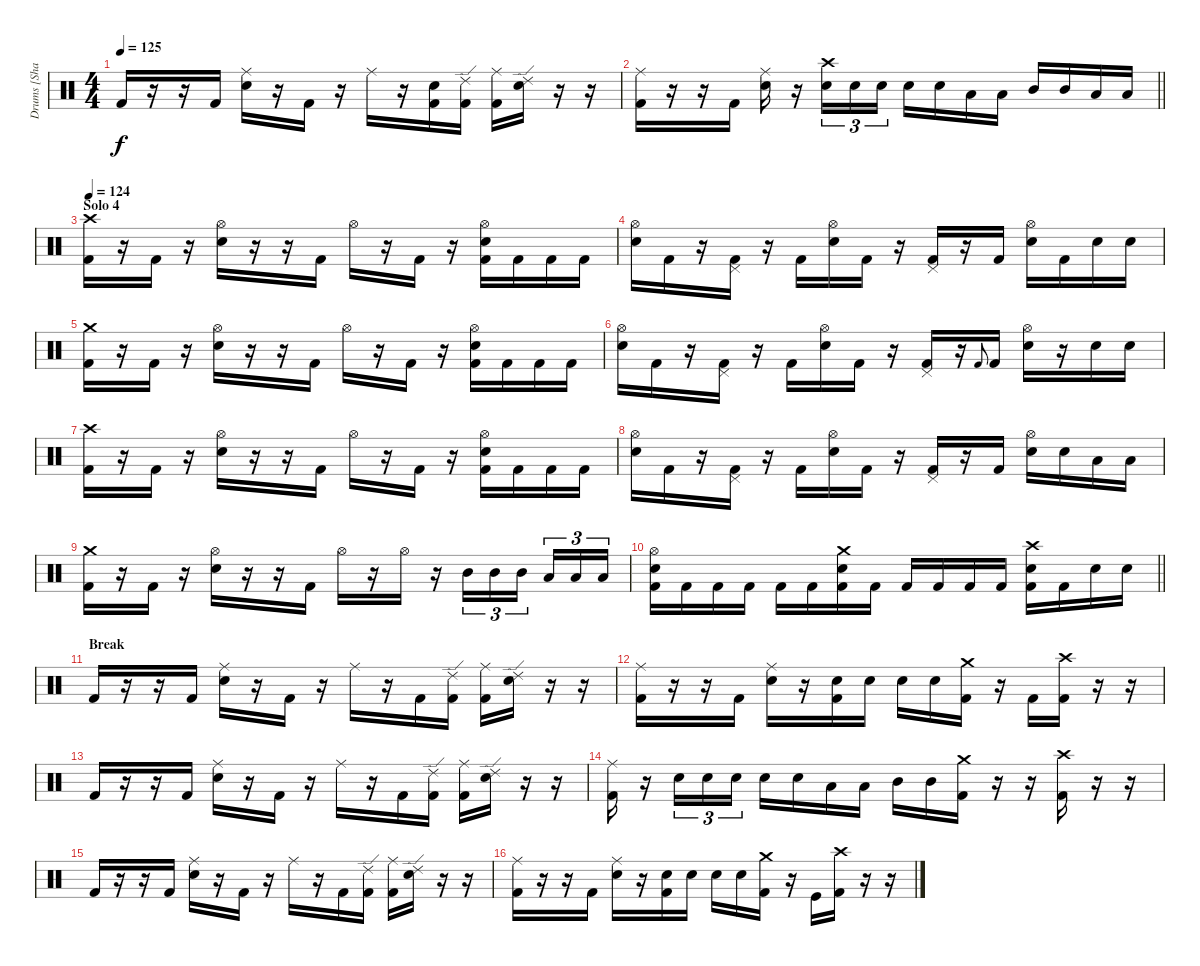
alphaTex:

\track ("Drums [Shawn Drover]" "Drums [Sha") {instrument percussion}
\staff {score}
\articulation defaults
\ts (4 4)
\tempo 125
\clef neutral
\ks c "Kick (hit) 2".16{dy f}
r.16 r.16 "Kick (hit) 2".16 ("Ride (middle)" "Electric Snare (hit)").16 r.16 "Kick (hit) 2".16 r.16 "Ride (middle)".16 r.16 ("Metronome (bell)" "Kick (hit) 2").16 ("Ride (edge) 2" "Kick (hit) 2").16 ("Ride (middle)" "Kick (hit) 2").16 ("Ride (edge) 2" "Electric Snare (hit)").16 r.16 r.16 |
\barLineRight lightlight
("Ride (middle)" "Kick (hit) 2").16 r.16 r.16 "Kick (hit) 2".16 ("Ride (middle)" "Electric Snare (hit)").16 r.16 ("Crash high (hit)" "Electric Snare (hit)").16{tu (3 2)} "Electric Snare (hit)".16{tu (3 2)} "Electric Snare (hit)".16{tu (3 2)} "Electric Snare (hit)".16 "Electric Snare (hit)".16 "Low Tom (hit)".16 "Low Tom (hit)".16 "Mid Tom (hit)".16 "Mid Tom (hit)".16 "Low Tom (hit)".16 "Low Tom (hit)".16 |
\section ("" "Solo 4")
\tempo 124
("Crash high (hit)" "Kick (hit) 2").16 r.16 "Kick (hit) 2".16 r.16 ("Hi-Hat (open)" "Electric Snare (hit)").16 r.16 r.16 "Kick (hit) 2".16 "Hi-Hat (open)".16 r.16 "Kick (hit) 2".16 r.16 ("Hi-Hat (open)" "Electric Snare (hit)" "Kick (hit) 2").16 "Kick (hit) 2".16 "Kick (hit) 2".16 "Kick (hit) 2".16 |
("Hi-Hat (open)" "Electric Snare (hit)").16 "Kick (hit) 2".16 r.16 ("Pedal Hi-Hat (hit)" "Kick (hit) 2").16 r.16 "Kick (hit) 2".16 ("Hi-Hat (open)" "Electric Snare (hit)").16 "Kick (hit) 2".16 r.16 ("Pedal Hi-Hat (hit)" "Kick (hit) 2").16 r.16 "Kick (hit) 2".16 ("Hi-Hat (open)" "Electric Snare (hit)").16 "Kick (hit) 2".16 "Electric Snare (hit)".16 "Electric Snare (hit)".16 |
("Crash medium (hit)" "Kick (hit) 2").16 r.16 "Kick (hit) 2".16 r.16 ("Hi-Hat (open)" "Electric Snare (hit)").16 r.16 r.16 "Kick (hit) 2".16 "Hi-Hat (open)".16 r.16 "Kick (hit) 2".16 r.16 ("Hi-Hat (open)" "Electric Snare (hit)" "Kick (hit) 2").16 "Kick (hit) 2".16 "Kick (hit) 2".16 "Kick (hit) 2".16 |
("Hi-Hat (open)" "Electric Snare (hit)").16 "Kick (hit) 2".16 r.16 ("Pedal Hi-Hat (hit)" "Kick (hit) 2").16 r.16 "Kick (hit) 2".16 ("Hi-Hat (open)" "Electric Snare (hit)").16 "Kick (hit) 2".16 r.16 ("Pedal Hi-Hat (hit)" "Kick (hit) 2").16 r.16 "Kick (hit) 2".8{gr onbeat} "Kick (hit) 2".16 ("Hi-Hat (open)" "Electric Snare (hit)").16 r.16 "Electric Snare (hit)".16 "Electric Snare (hit)".16 |
("Crash high (hit)" "Kick (hit) 2").16 r.16 "Kick (hit) 2".16 r.16 ("Hi-Hat (open)" "Electric Snare (hit)").16 r.16 r.16 "Kick (hit) 2".16 "Hi-Hat (open)".16 r.16 "Kick (hit) 2".16 r.16 ("Hi-Hat (open)" "Electric Snare (hit)" "Kick (hit) 2").16 "Kick (hit) 2".16 "Kick (hit) 2".16 "Kick (hit) 2".16 |
("Hi-Hat (open)" "Electric Snare (hit)").16 "Kick (hit) 2".16 r.16 ("Pedal Hi-Hat (hit)" "Kick (hit) 2").16 r.16 "Kick (hit) 2".16 ("Hi-Hat (open)" "Electric Snare (hit)").16 "Kick (hit) 2".16 r.16 ("Pedal Hi-Hat (hit)" "Kick (hit) 2").16 r.16 "Kick (hit) 2".16 ("Hi-Hat (open)" "Electric Snare (hit)").16 "Electric Snare (hit)".16 "Low Tom (hit)".16 "Low Tom (hit)".16 |
("Crash medium (hit)" "Kick (hit) 2").16 r.16 "Kick (hit) 2".16 r.16 ("Hi-Hat (open)" "Electric Snare (hit)").16 r.16 r.16 "Kick (hit) 2".16 "Hi-Hat (open)".16 r.16 "Hi-Hat (open)".16 r.16 "Mid Tom (hit)".16{tu (3 2)} "Mid Tom (hit)".16{tu (3 2)} "Mid Tom (hit)".16{tu (3 2) beam splitsecondary} "Low Tom (hit)".16{tu (3 2)} "Low Tom (hit)".16{tu (3 2)} "Low Tom (hit)".16{tu (3 2)} |
\barLineRight lightlight
("Hi-Hat (open)" "Electric Snare (hit)" "Kick (hit) 2").16 "Kick (hit) 2".16 "Kick (hit) 2".16 "Kick (hit) 2".16 "Kick (hit) 2".16 "Kick (hit) 2".16 ("Crash medium (hit)" "Electric Snare (hit)" "Kick (hit) 2").16 "Kick (hit) 2".16 "Kick (hit) 2".16 "Kick (hit) 2".16 "Kick (hit) 2".16 "Kick (hit) 2".16 ("Crash high (hit)" "Electric Snare (hit)" "Kick (hit) 2").16 "Kick (hit) 2".16 "Electric Snare (hit)".16 "Electric Snare (hit)".16 |
\section ("" "Break")
"Kick (hit) 2".16 r.16 r.16 "Kick (hit) 2".16 ("Ride (middle)" "Electric Snare (hit)").16 r.16 "Kick (hit) 2".16 r.16 "Ride (middle)".16 r.16 "Kick (hit) 2".16 ("Ride (edge) 2" "Kick (hit) 2").16 ("Ride (middle)" "Kick (hit) 2").16 ("Ride (edge) 2" "Electric Snare (hit)").16 r.16 r.16 |
("Ride (middle)" "Kick (hit) 2").16 r.16 r.16 "Kick (hit) 2".16 ("Ride (middle)" "Electric Snare (hit)").16 r.16 ("Electric Snare (hit)" "Kick (hit) 2").16 "Electric Snare (hit)".16 "Electric Snare (hit)".16 "Electric Snare (hit)".16 ("Crash medium (hit)" "Kick (hit) 2").16 r.16 "Kick (hit) 2".16 ("Crash high (hit)" "Kick (hit) 2").16 r.16 r.16 |
"Kick (hit) 2".16 r.16 r.16 "Kick (hit) 2".16 ("Ride (middle)" "Electric Snare (hit)").16 r.16 "Kick (hit) 2".16 r.16 "Ride (middle)".16 r.16 "Kick (hit) 2".16 ("Ride (edge) 2" "Kick (hit) 2").16 ("Ride (middle)" "Kick (hit) 2").16 ("Ride (edge) 2" "Electric Snare (hit)").16 r.16 r.16 |
("Ride (middle)" "Kick (hit) 2").16 r.16 "Electric Snare (hit)".16{tu (3 2)} "Electric Snare (hit)".16{tu (3 2)} "Electric Snare (hit)".16{tu (3 2)} "Electric Snare (hit)".16 "Electric Snare (hit)".16 "Low Tom (hit)".16 "Low Tom (hit)".16 "Mid Tom (hit)".16 "Mid Tom (hit)".16 ("Crash medium (hit)" "Kick (hit) 2").16 r.16 r.16 ("Crash high (hit)" "Kick (hit) 2").16 r.16 r.16 |
"Kick (hit) 2".16 r.16 r.16 "Kick (hit) 2".16 ("Ride (middle)" "Electric Snare (hit)").16 r.16 "Kick (hit) 2".16 r.16 "Ride (middle)".16 r.16 "Kick (hit) 2".16 ("Ride (edge) 2" "Kick (hit) 2").16 ("Ride (middle)" "Kick (hit) 2").16 ("Ride (edge) 2" "Electric Snare (hit)").16 r.16 r.16 |
("Ride (middle)" "Kick (hit) 2").16 r.16 r.16 "Kick (hit) 2".16 ("Ride (middle)" "Electric Snare (hit)").16 r.16 ("Electric Snare (hit)" "Kick (hit) 2").16 "Electric Snare (hit)".16 "Electric Snare (hit)".16 "Electric Snare (hit)".16 ("Crash medium (hit)" "Kick (hit) 2").16 r.16 "Kick (hit)".16 ("Crash high (hit)" "Kick (hit) 2").16 r.16 r.16
